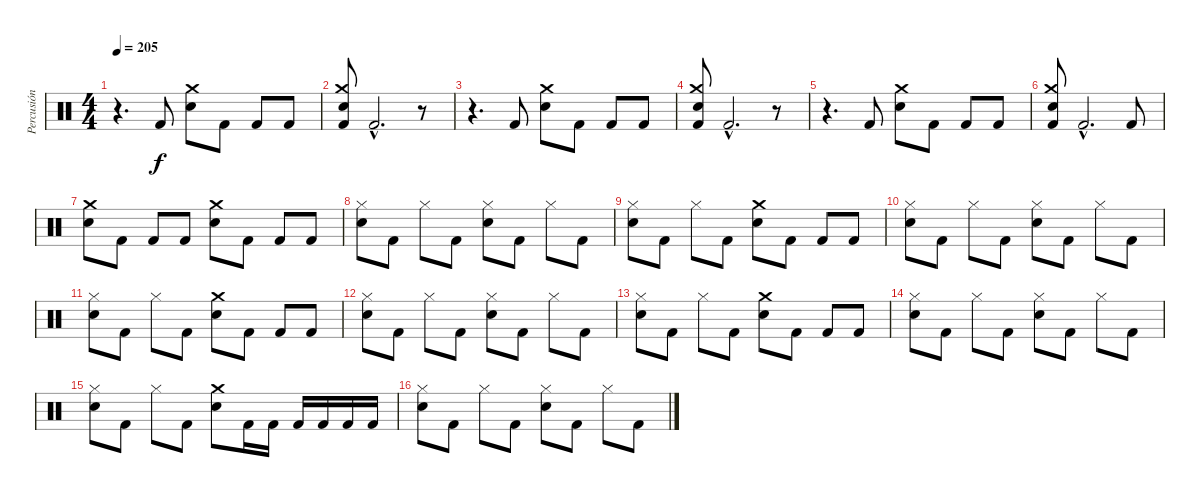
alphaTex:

\track ("Percusión" "Percusión") {instrument percussion}
\staff {score}
\articulation defaults
\ts (4 4)
\tempo 205
\clef neutral
\ks c
r.4{d dy f} "Kick (hit) 2".8 ("Crash medium (hit)" "Snare (hit) 2").8 "Kick (hit) 2".8 "Kick (hit) 2".8 "Kick (hit) 2".8 |
("Kick (hit) 2" "Crash medium (hit)" "Snare (hit) 2").8 "Kick (hit) 2"{hac}.2{d} r.8 |
r.4{d} "Kick (hit) 2".8 ("Crash medium (hit)" "Snare (hit) 2").8 "Kick (hit) 2".8 "Kick (hit) 2".8 "Kick (hit) 2".8 |
("Kick (hit) 2" "Crash medium (hit)" "Snare (hit) 2").8 "Kick (hit) 2"{hac}.2{d} r.8 |
r.4{d} "Kick (hit) 2".8 ("Crash medium (hit)" "Snare (hit) 2").8 "Kick (hit) 2".8 "Kick (hit) 2".8 "Kick (hit) 2".8 |
("Kick (hit) 2" "Crash medium (hit)" "Snare (hit) 2").8 "Kick (hit) 2"{hac}.2{d} "Kick (hit) 2".8 |
("Crash medium (hit)" "Snare (hit) 2").8 "Kick (hit) 2".8 "Kick (hit) 2".8 "Kick (hit) 2".8 ("Crash medium (hit)" "Snare (hit) 2").8 "Kick (hit) 2".8 "Kick (hit) 2".8 "Kick (hit) 2".8 |
("Hi-Hat (closed)" "Snare (hit) 2").8 "Kick (hit) 2".8 "Hi-Hat (closed)".8 "Kick (hit) 2".8 ("Hi-Hat (closed)" "Snare (hit) 2").8 "Kick (hit) 2".8 "Hi-Hat (closed)".8 "Kick (hit) 2".8 |
("Hi-Hat (closed)" "Snare (hit) 2").8 "Kick (hit) 2".8 "Hi-Hat (closed)".8 "Kick (hit) 2".8 ("Crash medium (hit)" "Snare (hit) 2").8 "Kick (hit) 2".8 "Kick (hit) 2".8 "Kick (hit) 2".8 |
("Hi-Hat (closed)" "Snare (hit) 2").8 "Kick (hit) 2".8 "Hi-Hat (closed)".8 "Kick (hit) 2".8 ("Hi-Hat (closed)" "Snare (hit) 2").8 "Kick (hit) 2".8 "Hi-Hat (closed)".8 "Kick (hit) 2".8 |
("Hi-Hat (closed)" "Snare (hit) 2").8 "Kick (hit) 2".8 "Hi-Hat (closed)".8 "Kick (hit) 2".8 ("Crash medium (hit)" "Snare (hit) 2").8 "Kick (hit) 2".8 "Kick (hit) 2".8 "Kick (hit) 2".8 |
("Hi-Hat (closed)" "Snare (hit) 2").8 "Kick (hit) 2".8 "Hi-Hat (closed)".8 "Kick (hit) 2".8 ("Hi-Hat (closed)" "Snare (hit) 2").8 "Kick (hit) 2".8 "Hi-Hat (closed)".8 "Kick (hit) 2".8 |
("Hi-Hat (closed)" "Snare (hit) 2").8 "Kick (hit) 2".8 "Hi-Hat (closed)".8 "Kick (hit) 2".8 ("Crash medium (hit)" "Snare (hit) 2").8 "Kick (hit) 2".8 "Kick (hit) 2".8 "Kick (hit) 2".8 |
("Hi-Hat (closed)" "Snare (hit) 2").8 "Kick (hit) 2".8 "Hi-Hat (closed)".8 "Kick (hit) 2".8 ("Hi-Hat (closed)" "Snare (hit) 2").8 "Kick (hit) 2".8 "Hi-Hat (closed)".8 "Kick (hit) 2".8 |
("Hi-Hat (closed)" "Snare (hit) 2").8 "Kick (hit) 2".8 "Hi-Hat (closed)".8 "Kick (hit) 2".8 ("Crash medium (hit)" "Snare (hit) 2").8 "Kick (hit) 2".16 "Kick (hit) 2".16 "Kick (hit) 2".16 "Kick (hit) 2".16 "Kick (hit) 2".16 "Kick (hit) 2".16 |
("Hi-Hat (closed)" "Snare (hit) 2").8 "Kick (hit) 2".8 "Hi-Hat (closed)".8 "Kick (hit) 2".8 ("Hi-Hat (closed)" "Snare (hit) 2").8 "Kick (hit) 2".8 "Hi-Hat (closed)".8 "Kick (hit) 2".8
